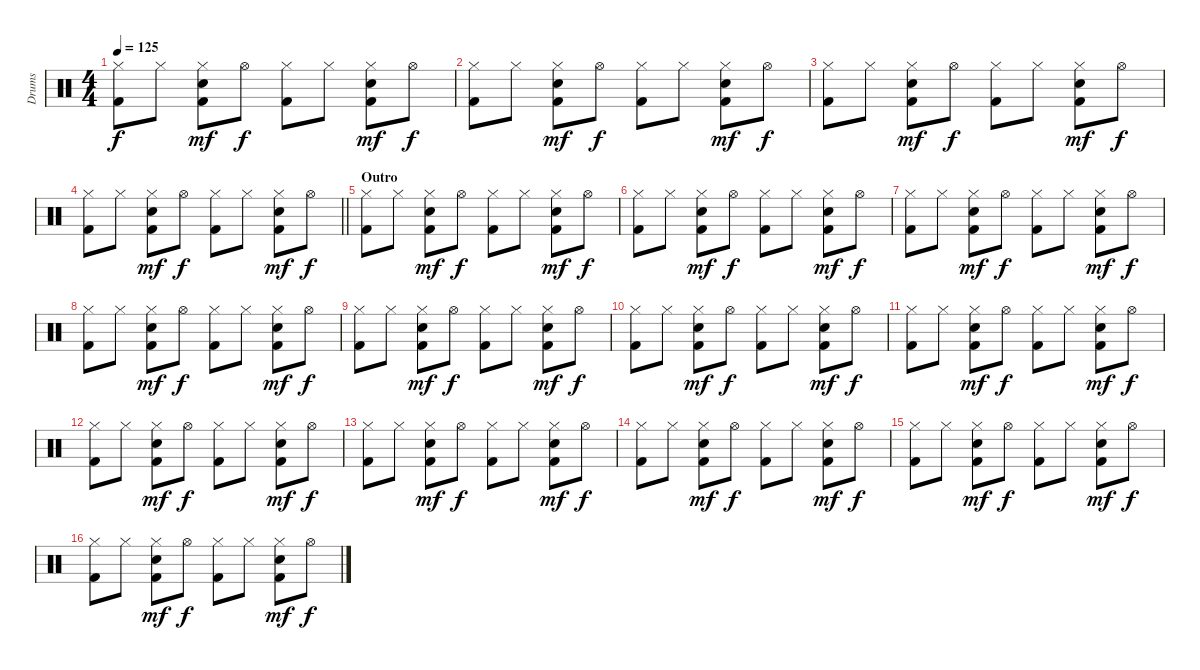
\track ("Drums" "Drums") {instrument percussion}
\staff {score}
\articulation defaults
\ts (4 4)
\tempo 125
\clef neutral
\ks c
("Hi-Hat (closed)" "Kick (hit) 2").8{dy f} "Hi-Hat (closed)".8 ("Hi-Hat (closed)" "Snare (hit) 2" "Kick (hit) 2").8{dy mf} "Hi-Hat (open)".8{dy f} ("Hi-Hat (closed)" "Kick (hit) 2").8 "Hi-Hat (closed)".8 ("Hi-Hat (closed)" "Snare (hit) 2" "Kick (hit) 2").8{dy mf} "Hi-Hat (open)".8{dy f} |
("Hi-Hat (closed)" "Kick (hit) 2").8 "Hi-Hat (closed)".8 ("Hi-Hat (closed)" "Snare (hit) 2" "Kick (hit) 2").8{dy mf} "Hi-Hat (open)".8{dy f} ("Hi-Hat (closed)" "Kick (hit) 2").8 "Hi-Hat (closed)".8 ("Hi-Hat (closed)" "Snare (hit) 2" "Kick (hit) 2").8{dy mf} "Hi-Hat (open)".8{dy f} |
("Hi-Hat (closed)" "Kick (hit) 2").8 "Hi-Hat (closed)".8 ("Hi-Hat (closed)" "Snare (hit) 2" "Kick (hit) 2").8{dy mf} "Hi-Hat (open)".8{dy f} ("Hi-Hat (closed)" "Kick (hit) 2").8 "Hi-Hat (closed)".8 ("Hi-Hat (closed)" "Snare (hit) 2" "Kick (hit) 2").8{dy mf} "Hi-Hat (open)".8{dy f} |
\barLineRight lightlight
("Hi-Hat (closed)" "Kick (hit) 2").8 "Hi-Hat (closed)".8 ("Hi-Hat (closed)" "Snare (hit) 2" "Kick (hit) 2").8{dy mf} "Hi-Hat (open)".8{dy f} ("Hi-Hat (closed)" "Kick (hit) 2").8 "Hi-Hat (closed)".8 ("Hi-Hat (closed)" "Snare (hit) 2" "Kick (hit) 2").8{dy mf} "Hi-Hat (open)".8{dy f} |
\section ("" "Outro")
("Hi-Hat (closed)" "Kick (hit) 2").8 "Hi-Hat (closed)".8 ("Hi-Hat (closed)" "Snare (hit) 2" "Kick (hit) 2").8{dy mf} "Hi-Hat (open)".8{dy f} ("Hi-Hat (closed)" "Kick (hit) 2").8 "Hi-Hat (closed)".8 ("Hi-Hat (closed)" "Snare (hit) 2" "Kick (hit) 2").8{dy mf} "Hi-Hat (open)".8{dy f} |
("Hi-Hat (closed)" "Kick (hit) 2").8 "Hi-Hat (closed)".8 ("Hi-Hat (closed)" "Snare (hit) 2" "Kick (hit) 2").8{dy mf} "Hi-Hat (open)".8{dy f} ("Hi-Hat (closed)" "Kick (hit) 2").8 "Hi-Hat (closed)".8 ("Hi-Hat (closed)" "Snare (hit) 2" "Kick (hit) 2").8{dy mf} "Hi-Hat (open)".8{dy f} |
("Hi-Hat (closed)" "Kick (hit) 2").8 "Hi-Hat (closed)".8 ("Hi-Hat (closed)" "Snare (hit) 2" "Kick (hit) 2").8{dy mf} "Hi-Hat (open)".8{dy f} ("Hi-Hat (closed)" "Kick (hit) 2").8 "Hi-Hat (closed)".8 ("Hi-Hat (closed)" "Snare (hit) 2" "Kick (hit) 2").8{dy mf} "Hi-Hat (open)".8{dy f} |
("Hi-Hat (closed)" "Kick (hit) 2").8 "Hi-Hat (closed)".8 ("Hi-Hat (closed)" "Snare (hit) 2" "Kick (hit) 2").8{dy mf} "Hi-Hat (open)".8{dy f} ("Hi-Hat (closed)" "Kick (hit) 2").8 "Hi-Hat (closed)".8 ("Hi-Hat (closed)" "Snare (hit) 2" "Kick (hit) 2").8{dy mf} "Hi-Hat (open)".8{dy f} |
("Hi-Hat (closed)" "Kick (hit) 2").8 "Hi-Hat (closed)".8 ("Hi-Hat (closed)" "Snare (hit) 2" "Kick (hit) 2").8{dy mf} "Hi-Hat (open)".8{dy f} ("Hi-Hat (closed)" "Kick (hit) 2").8 "Hi-Hat (closed)".8 ("Hi-Hat (closed)" "Snare (hit) 2" "Kick (hit) 2").8{dy mf} "Hi-Hat (open)".8{dy f} |
("Hi-Hat (closed)" "Kick (hit) 2").8 "Hi-Hat (closed)".8 ("Hi-Hat (closed)" "Snare (hit) 2" "Kick (hit) 2").8{dy mf} "Hi-Hat (open)".8{dy f} ("Hi-Hat (closed)" "Kick (hit) 2").8 "Hi-Hat (closed)".8 ("Hi-Hat (closed)" "Snare (hit) 2" "Kick (hit) 2").8{dy mf} "Hi-Hat (open)".8{dy f} |
("Hi-Hat (closed)" "Kick (hit) 2").8 "Hi-Hat (closed)".8 ("Hi-Hat (closed)" "Snare (hit) 2" "Kick (hit) 2").8{dy mf} "Hi-Hat (open)".8{dy f} ("Hi-Hat (closed)" "Kick (hit) 2").8 "Hi-Hat (closed)".8 ("Hi-Hat (closed)" "Snare (hit) 2" "Kick (hit) 2").8{dy mf} "Hi-Hat (open)".8{dy f} |
("Hi-Hat (closed)" "Kick (hit) 2").8 "Hi-Hat (closed)".8 ("Hi-Hat (closed)" "Snare (hit) 2" "Kick (hit) 2").8{dy mf} "Hi-Hat (open)".8{dy f} ("Hi-Hat (closed)" "Kick (hit) 2").8 "Hi-Hat (closed)".8 ("Hi-Hat (closed)" "Snare (hit) 2" "Kick (hit) 2").8{dy mf} "Hi-Hat (open)".8{dy f} |
("Hi-Hat (closed)" "Kick (hit) 2").8 "Hi-Hat (closed)".8 ("Hi-Hat (closed)" "Snare (hit) 2" "Kick (hit) 2").8{dy mf} "Hi-Hat (open)".8{dy f} ("Hi-Hat (closed)" "Kick (hit) 2").8 "Hi-Hat (closed)".8 ("Hi-Hat (closed)" "Snare (hit) 2" "Kick (hit) 2").8{dy mf} "Hi-Hat (open)".8{dy f} |
("Hi-Hat (closed)" "Kick (hit) 2").8 "Hi-Hat (closed)".8 ("Hi-Hat (closed)" "Snare (hit) 2" "Kick (hit) 2").8{dy mf} "Hi-Hat (open)".8{dy f} ("Hi-Hat (closed)" "Kick (hit) 2").8 "Hi-Hat (closed)".8 ("Hi-Hat (closed)" "Snare (hit) 2" "Kick (hit) 2").8{dy mf} "Hi-Hat (open)".8{dy f} |
("Hi-Hat (closed)" "Kick (hit) 2").8 "Hi-Hat (closed)".8 ("Hi-Hat (closed)" "Snare (hit) 2" "Kick (hit) 2").8{dy mf} "Hi-Hat (open)".8{dy f} ("Hi-Hat (closed)" "Kick (hit) 2").8 "Hi-Hat (closed)".8 ("Hi-Hat (closed)" "Snare (hit) 2" "Kick (hit) 2").8{dy mf} "Hi-Hat (open)".8{dy f} |
("Hi-Hat (closed)" "Kick (hit) 2").8 "Hi-Hat (closed)".8 ("Hi-Hat (closed)" "Snare (hit) 2" "Kick (hit) 2").8{dy mf} "Hi-Hat (open)".8{dy f} ("Hi-Hat (closed)" "Kick (hit) 2").8 "Hi-Hat (closed)".8 ("Hi-Hat (closed)" "Snare (hit) 2" "Kick (hit) 2").8{dy mf} "Hi-Hat (open)".8{dy f}
